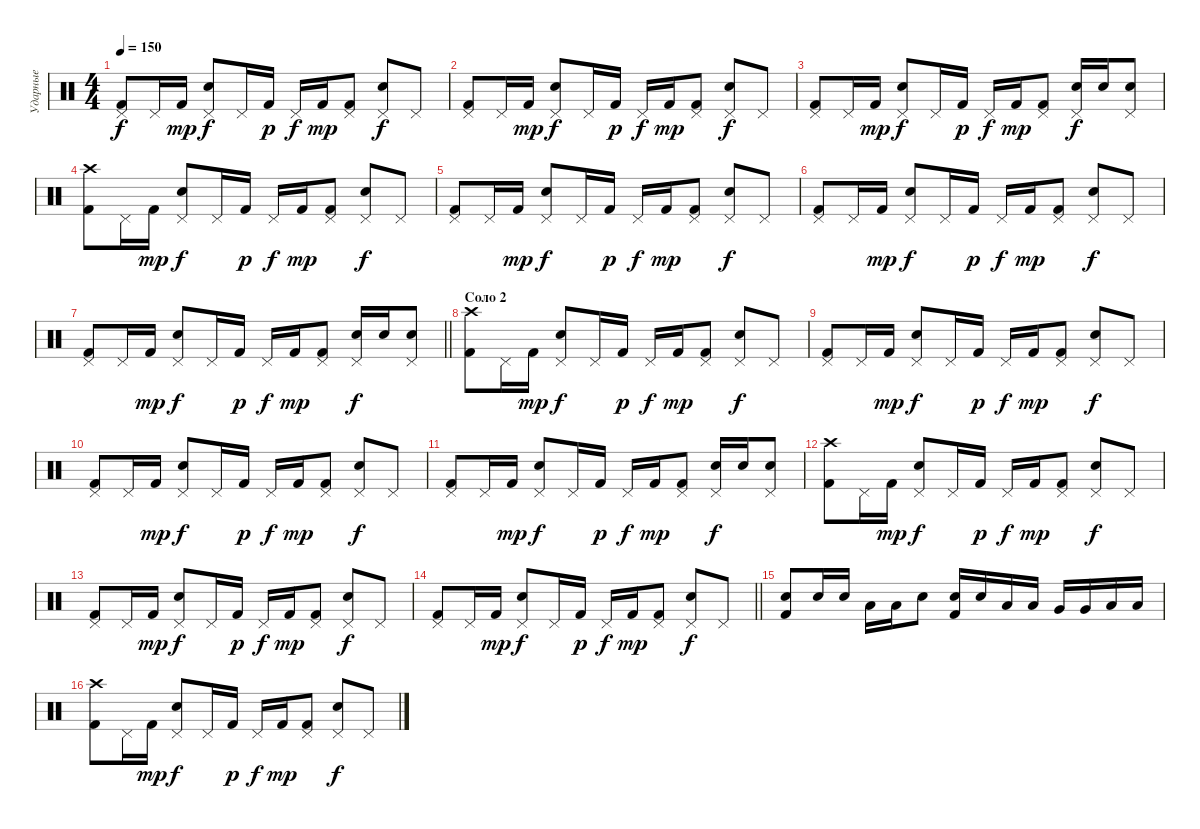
\track ("Ударные" "Ударные") {instrument percussion}
\staff {score}
\articulation defaults
\ts (4 4)
\tempo 150
\clef neutral
\ks c
("Pedal Hi-Hat (hit)" "Kick (hit) 2").8{dy f} "Pedal Hi-Hat (hit)".16 "Kick (hit) 2".16{dy mp} ("Pedal Hi-Hat (hit)" "Snare (hit) 2").8{dy f} "Pedal Hi-Hat (hit)".16 "Kick (hit) 2".16{dy p} "Pedal Hi-Hat (hit)".16{dy f} "Kick (hit) 2".16{dy mp} ("Pedal Hi-Hat (hit)" "Kick (hit) 2").8 ("Pedal Hi-Hat (hit)" "Snare (hit) 2").8{dy f} "Pedal Hi-Hat (hit)".8 |
("Pedal Hi-Hat (hit)" "Kick (hit) 2").8 "Pedal Hi-Hat (hit)".16 "Kick (hit) 2".16{dy mp} ("Pedal Hi-Hat (hit)" "Snare (hit) 2").8{dy f} "Pedal Hi-Hat (hit)".16 "Kick (hit) 2".16{dy p} "Pedal Hi-Hat (hit)".16{dy f} "Kick (hit) 2".16{dy mp} ("Pedal Hi-Hat (hit)" "Kick (hit) 2").8 ("Pedal Hi-Hat (hit)" "Snare (hit) 2").8{dy f} "Pedal Hi-Hat (hit)".8 |
("Pedal Hi-Hat (hit)" "Kick (hit) 2").8 "Pedal Hi-Hat (hit)".16 "Kick (hit) 2".16{dy mp} ("Pedal Hi-Hat (hit)" "Snare (hit) 2").8{dy f} "Pedal Hi-Hat (hit)".16 "Kick (hit) 2".16{dy p} "Pedal Hi-Hat (hit)".16{dy f} "Kick (hit) 2".16{dy mp} ("Pedal Hi-Hat (hit)" "Kick (hit) 2").8 ("Pedal Hi-Hat (hit)" "Snare (hit) 2").16{dy f} "Snare (hit) 2".16 ("Pedal Hi-Hat (hit)" "Snare (hit) 2").8 |
("Crash high (hit)" "Kick (hit) 2").8 "Pedal Hi-Hat (hit)".16 "Kick (hit) 2".16{dy mp} ("Pedal Hi-Hat (hit)" "Snare (hit) 2").8{dy f} "Pedal Hi-Hat (hit)".16 "Kick (hit) 2".16{dy p} "Pedal Hi-Hat (hit)".16{dy f} "Kick (hit) 2".16{dy mp} ("Pedal Hi-Hat (hit)" "Kick (hit) 2").8 ("Pedal Hi-Hat (hit)" "Snare (hit) 2").8{dy f} "Pedal Hi-Hat (hit)".8 |
("Pedal Hi-Hat (hit)" "Kick (hit) 2").8 "Pedal Hi-Hat (hit)".16 "Kick (hit) 2".16{dy mp} ("Pedal Hi-Hat (hit)" "Snare (hit) 2").8{dy f} "Pedal Hi-Hat (hit)".16 "Kick (hit) 2".16{dy p} "Pedal Hi-Hat (hit)".16{dy f} "Kick (hit) 2".16{dy mp} ("Pedal Hi-Hat (hit)" "Kick (hit) 2").8 ("Pedal Hi-Hat (hit)" "Snare (hit) 2").8{dy f} "Pedal Hi-Hat (hit)".8 |
("Pedal Hi-Hat (hit)" "Kick (hit) 2").8 "Pedal Hi-Hat (hit)".16 "Kick (hit) 2".16{dy mp} ("Pedal Hi-Hat (hit)" "Snare (hit) 2").8{dy f} "Pedal Hi-Hat (hit)".16 "Kick (hit) 2".16{dy p} "Pedal Hi-Hat (hit)".16{dy f} "Kick (hit) 2".16{dy mp} ("Pedal Hi-Hat (hit)" "Kick (hit) 2").8 ("Pedal Hi-Hat (hit)" "Snare (hit) 2").8{dy f} "Pedal Hi-Hat (hit)".8 |
\barLineRight lightlight
("Pedal Hi-Hat (hit)" "Kick (hit) 2").8 "Pedal Hi-Hat (hit)".16 "Kick (hit) 2".16{dy mp} ("Pedal Hi-Hat (hit)" "Snare (hit) 2").8{dy f} "Pedal Hi-Hat (hit)".16 "Kick (hit) 2".16{dy p} "Pedal Hi-Hat (hit)".16{dy f} "Kick (hit) 2".16{dy mp} ("Pedal Hi-Hat (hit)" "Kick (hit) 2").8 ("Pedal Hi-Hat (hit)" "Snare (hit) 2").16{dy f} "Snare (hit) 2".16 ("Pedal Hi-Hat (hit)" "Snare (hit) 2").8 |
\section ("" "Соло 2")
("Crash high (hit)" "Kick (hit) 2").8 "Pedal Hi-Hat (hit)".16 "Kick (hit) 2".16{dy mp} ("Pedal Hi-Hat (hit)" "Snare (hit) 2").8{dy f} "Pedal Hi-Hat (hit)".16 "Kick (hit) 2".16{dy p} "Pedal Hi-Hat (hit)".16{dy f} "Kick (hit) 2".16{dy mp} ("Pedal Hi-Hat (hit)" "Kick (hit) 2").8 ("Pedal Hi-Hat (hit)" "Snare (hit) 2").8{dy f} "Pedal Hi-Hat (hit)".8 |
("Pedal Hi-Hat (hit)" "Kick (hit) 2").8 "Pedal Hi-Hat (hit)".16 "Kick (hit) 2".16{dy mp} ("Pedal Hi-Hat (hit)" "Snare (hit) 2").8{dy f} "Pedal Hi-Hat (hit)".16 "Kick (hit) 2".16{dy p} "Pedal Hi-Hat (hit)".16{dy f} "Kick (hit) 2".16{dy mp} ("Pedal Hi-Hat (hit)" "Kick (hit) 2").8 ("Pedal Hi-Hat (hit)" "Snare (hit) 2").8{dy f} "Pedal Hi-Hat (hit)".8 |
("Pedal Hi-Hat (hit)" "Kick (hit) 2").8 "Pedal Hi-Hat (hit)".16 "Kick (hit) 2".16{dy mp} ("Pedal Hi-Hat (hit)" "Snare (hit) 2").8{dy f} "Pedal Hi-Hat (hit)".16 "Kick (hit) 2".16{dy p} "Pedal Hi-Hat (hit)".16{dy f} "Kick (hit) 2".16{dy mp} ("Pedal Hi-Hat (hit)" "Kick (hit) 2").8 ("Pedal Hi-Hat (hit)" "Snare (hit) 2").8{dy f} "Pedal Hi-Hat (hit)".8 |
("Pedal Hi-Hat (hit)" "Kick (hit) 2").8 "Pedal Hi-Hat (hit)".16 "Kick (hit) 2".16{dy mp} ("Pedal Hi-Hat (hit)" "Snare (hit) 2").8{dy f} "Pedal Hi-Hat (hit)".16 "Kick (hit) 2".16{dy p} "Pedal Hi-Hat (hit)".16{dy f} "Kick (hit) 2".16{dy mp} ("Pedal Hi-Hat (hit)" "Kick (hit) 2").8 ("Pedal Hi-Hat (hit)" "Snare (hit) 2").16{dy f} "Snare (hit) 2".16 ("Pedal Hi-Hat (hit)" "Snare (hit) 2").8 |
("Crash high (hit)" "Kick (hit) 2").8 "Pedal Hi-Hat (hit)".16 "Kick (hit) 2".16{dy mp} ("Pedal Hi-Hat (hit)" "Snare (hit) 2").8{dy f} "Pedal Hi-Hat (hit)".16 "Kick (hit) 2".16{dy p} "Pedal Hi-Hat (hit)".16{dy f} "Kick (hit) 2".16{dy mp} ("Pedal Hi-Hat (hit)" "Kick (hit) 2").8 ("Pedal Hi-Hat (hit)" "Snare (hit) 2").8{dy f} "Pedal Hi-Hat (hit)".8 |
("Pedal Hi-Hat (hit)" "Kick (hit) 2").8 "Pedal Hi-Hat (hit)".16 "Kick (hit) 2".16{dy mp} ("Pedal Hi-Hat (hit)" "Snare (hit) 2").8{dy f} "Pedal Hi-Hat (hit)".16 "Kick (hit) 2".16{dy p} "Pedal Hi-Hat (hit)".16{dy f} "Kick (hit) 2".16{dy mp} ("Pedal Hi-Hat (hit)" "Kick (hit) 2").8 ("Pedal Hi-Hat (hit)" "Snare (hit) 2").8{dy f} "Pedal Hi-Hat (hit)".8 |
\barLineRight lightlight
("Pedal Hi-Hat (hit)" "Kick (hit) 2").8 "Pedal Hi-Hat (hit)".16 "Kick (hit) 2".16{dy mp} ("Pedal Hi-Hat (hit)" "Snare (hit) 2").8{dy f} "Pedal Hi-Hat (hit)".16 "Kick (hit) 2".16{dy p} "Pedal Hi-Hat (hit)".16{dy f} "Kick (hit) 2".16{dy mp} ("Pedal Hi-Hat (hit)" "Kick (hit) 2").8 ("Pedal Hi-Hat (hit)" "Snare (hit) 2").8{dy f} "Pedal Hi-Hat (hit)".8 |
("Snare (hit) 2" "Kick (hit) 2").8 "Snare (hit) 2".16 "Snare (hit) 2".16 "Low Floor Tom (hit)".16 "Low Floor Tom (hit)".16 "Snare (hit) 2".8 ("Snare (hit) 2" "Kick (hit) 2").16 "Snare (hit) 2".16 "Low Tom (hit)".16 "Low Tom (hit)".16 "Very Low Tom (hit)".16 "Very Low Tom (hit)".16 "Low Floor Tom (hit)".16 "Low Floor Tom (hit)".16 |
("Crash high (hit)" "Kick (hit) 2").8 "Pedal Hi-Hat (hit)".16 "Kick (hit) 2".16{dy mp} ("Pedal Hi-Hat (hit)" "Snare (hit) 2").8{dy f} "Pedal Hi-Hat (hit)".16 "Kick (hit) 2".16{dy p} "Pedal Hi-Hat (hit)".16{dy f} "Kick (hit) 2".16{dy mp} ("Pedal Hi-Hat (hit)" "Kick (hit) 2").8 ("Pedal Hi-Hat (hit)" "Snare (hit) 2").8{dy f} "Pedal Hi-Hat (hit)".8
